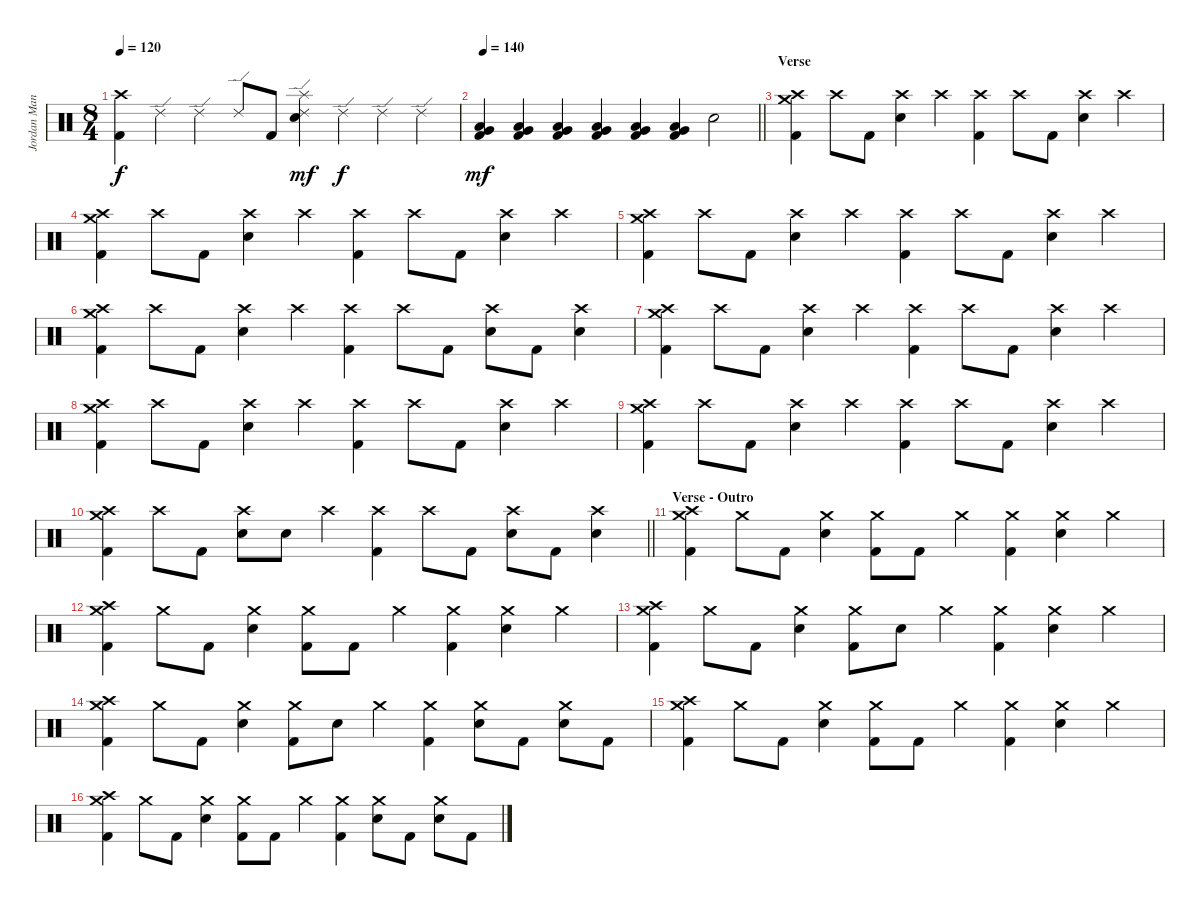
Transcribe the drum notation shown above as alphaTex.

\track ("Jordan Mancino" "Jordan Man") {instrument percussion}
\staff {score}
\articulation defaults
\ts (8 4)
\tempo 120
\clef neutral
\ks c
("Crash high (hit)" "Kick (hit) 2").4{dy f} "Ride (edge) 2".4 "Ride (edge) 2".4 "Ride (edge) 2".8 "Kick (hit) 2".8 ("Ride (edge) 2" "Splash (hit)" "Electric Snare (hit)").4{dy mf} "Ride (edge) 2".4{dy f} "Ride (edge) 2".4 "Ride (edge) 2".4 |
\tempo 140
\barLineRight lightlight
("Very Low Tom (hit)" "Low Floor Tom (hit)" "Kick (hit) 2").4{dy mf} ("Very Low Tom (hit)" "Low Floor Tom (hit)" "Kick (hit) 2").4 ("Very Low Tom (hit)" "Low Floor Tom (hit)" "Kick (hit) 2").4 ("Very Low Tom (hit)" "Low Floor Tom (hit)" "Kick (hit) 2").4 ("Very Low Tom (hit)" "Low Floor Tom (hit)" "Kick (hit) 2").4 ("Very Low Tom (hit)" "Low Floor Tom (hit)" "Kick (hit) 2").4 "Electric Snare (hit)".2 |
\section ("" "Verse")
("Crash high (hit)" "Crash medium (hit)" "Kick (hit) 2").4 "Crash high (hit)".8 "Kick (hit) 2".8 ("Crash high (hit)" "Electric Snare (hit)").4 "Crash high (hit)".4 ("Crash high (hit)" "Kick (hit) 2").4 "Crash high (hit)".8 "Kick (hit) 2".8 ("Crash high (hit)" "Electric Snare (hit)").4 "Crash high (hit)".4 |
("Crash high (hit)" "Crash medium (hit)" "Kick (hit) 2").4 "Crash high (hit)".8 "Kick (hit) 2".8 ("Crash high (hit)" "Electric Snare (hit)").4 "Crash high (hit)".4 ("Crash high (hit)" "Kick (hit) 2").4 "Crash high (hit)".8 "Kick (hit) 2".8 ("Crash high (hit)" "Electric Snare (hit)").4 "Crash high (hit)".4 |
("Crash high (hit)" "Crash medium (hit)" "Kick (hit) 2").4 "Crash high (hit)".8 "Kick (hit) 2".8 ("Crash high (hit)" "Electric Snare (hit)").4 "Crash high (hit)".4 ("Crash high (hit)" "Kick (hit) 2").4 "Crash high (hit)".8 "Kick (hit) 2".8 ("Crash high (hit)" "Electric Snare (hit)").4 "Crash high (hit)".4 |
("Crash high (hit)" "Crash medium (hit)" "Kick (hit) 2").4 "Crash high (hit)".8 "Kick (hit) 2".8 ("Crash high (hit)" "Electric Snare (hit)").4 "Crash high (hit)".4 ("Crash high (hit)" "Kick (hit) 2").4 "Crash high (hit)".8 "Kick (hit) 2".8 ("Crash high (hit)" "Electric Snare (hit)").8 "Kick (hit) 2".8 ("Crash high (hit)" "Electric Snare (hit)").4 |
("Crash high (hit)" "Crash medium (hit)" "Kick (hit) 2").4 "Crash high (hit)".8 "Kick (hit) 2".8 ("Crash high (hit)" "Electric Snare (hit)").4 "Crash high (hit)".4 ("Crash high (hit)" "Kick (hit) 2").4 "Crash high (hit)".8 "Kick (hit) 2".8 ("Crash high (hit)" "Electric Snare (hit)").4 "Crash high (hit)".4 |
("Crash high (hit)" "Crash medium (hit)" "Kick (hit) 2").4 "Crash high (hit)".8 "Kick (hit) 2".8 ("Crash high (hit)" "Electric Snare (hit)").4 "Crash high (hit)".4 ("Crash high (hit)" "Kick (hit) 2").4 "Crash high (hit)".8 "Kick (hit) 2".8 ("Crash high (hit)" "Electric Snare (hit)").4 "Crash high (hit)".4 |
("Crash high (hit)" "Crash medium (hit)" "Kick (hit) 2").4 "Crash high (hit)".8 "Kick (hit) 2".8 ("Crash high (hit)" "Electric Snare (hit)").4 "Crash high (hit)".4 ("Crash high (hit)" "Kick (hit) 2").4 "Crash high (hit)".8 "Kick (hit) 2".8 ("Crash high (hit)" "Electric Snare (hit)").4 "Crash high (hit)".4 |
\barLineRight lightlight
("Crash high (hit)" "Crash medium (hit)" "Kick (hit) 2").4 "Crash high (hit)".8 "Kick (hit) 2".8 ("Crash high (hit)" "Electric Snare (hit)").8 "Electric Snare (hit)".8 "Crash high (hit)".4 ("Crash high (hit)" "Kick (hit) 2").4 "Crash high (hit)".8 "Kick (hit) 2".8 ("Crash high (hit)" "Electric Snare (hit)").8 "Kick (hit) 2".8 ("Crash high (hit)" "Electric Snare (hit)").4 |
\section ("" "Verse - Outro")
("Crash medium (hit)" "Crash high (hit)" "Kick (hit) 2").4 "Crash medium (hit)".8 "Kick (hit) 2".8 ("Crash medium (hit)" "Electric Snare (hit)").4 ("Crash medium (hit)" "Kick (hit) 2").8 "Kick (hit) 2".8 "Crash medium (hit)".4 ("Crash medium (hit)" "Kick (hit) 2").4 ("Crash medium (hit)" "Electric Snare (hit)").4 "Crash medium (hit)".4 |
("Crash medium (hit)" "Crash high (hit)" "Kick (hit) 2").4 "Crash medium (hit)".8 "Kick (hit) 2".8 ("Crash medium (hit)" "Electric Snare (hit)").4 ("Crash medium (hit)" "Kick (hit) 2").8 "Kick (hit) 2".8 "Crash medium (hit)".4 ("Crash medium (hit)" "Kick (hit) 2").4 ("Crash medium (hit)" "Electric Snare (hit)").4 "Crash medium (hit)".4 |
("Crash medium (hit)" "Crash high (hit)" "Kick (hit) 2").4 "Crash medium (hit)".8 "Kick (hit) 2".8 ("Crash medium (hit)" "Electric Snare (hit)").4 ("Crash medium (hit)" "Kick (hit) 2").8 "Electric Snare (hit)".8 "Crash medium (hit)".4 ("Crash medium (hit)" "Kick (hit) 2").4 ("Crash medium (hit)" "Electric Snare (hit)").4 "Crash medium (hit)".4 |
("Crash medium (hit)" "Crash high (hit)" "Kick (hit) 2").4 "Crash medium (hit)".8 "Kick (hit) 2".8 ("Crash medium (hit)" "Electric Snare (hit)").4 ("Crash medium (hit)" "Kick (hit) 2").8 "Electric Snare (hit)".8 "Crash medium (hit)".4 ("Crash medium (hit)" "Kick (hit) 2").4 ("Crash medium (hit)" "Electric Snare (hit)").8 "Kick (hit) 2".8 ("Crash medium (hit)" "Electric Snare (hit)").8 "Kick (hit) 2".8 |
("Crash medium (hit)" "Crash high (hit)" "Kick (hit) 2").4 "Crash medium (hit)".8 "Kick (hit) 2".8 ("Crash medium (hit)" "Electric Snare (hit)").4 ("Crash medium (hit)" "Kick (hit) 2").8 "Kick (hit) 2".8 "Crash medium (hit)".4 ("Crash medium (hit)" "Kick (hit) 2").4 ("Crash medium (hit)" "Electric Snare (hit)").4 "Crash medium (hit)".4 |
("Crash medium (hit)" "Crash high (hit)" "Kick (hit) 2").4 "Crash medium (hit)".8 "Kick (hit) 2".8 ("Crash medium (hit)" "Electric Snare (hit)").4 ("Crash medium (hit)" "Kick (hit) 2").8 "Kick (hit) 2".8 "Crash medium (hit)".4 ("Crash medium (hit)" "Kick (hit) 2").4 ("Crash medium (hit)" "Electric Snare (hit)").8 "Kick (hit) 2".8 ("Crash medium (hit)" "Electric Snare (hit)").8 "Kick (hit) 2".8
